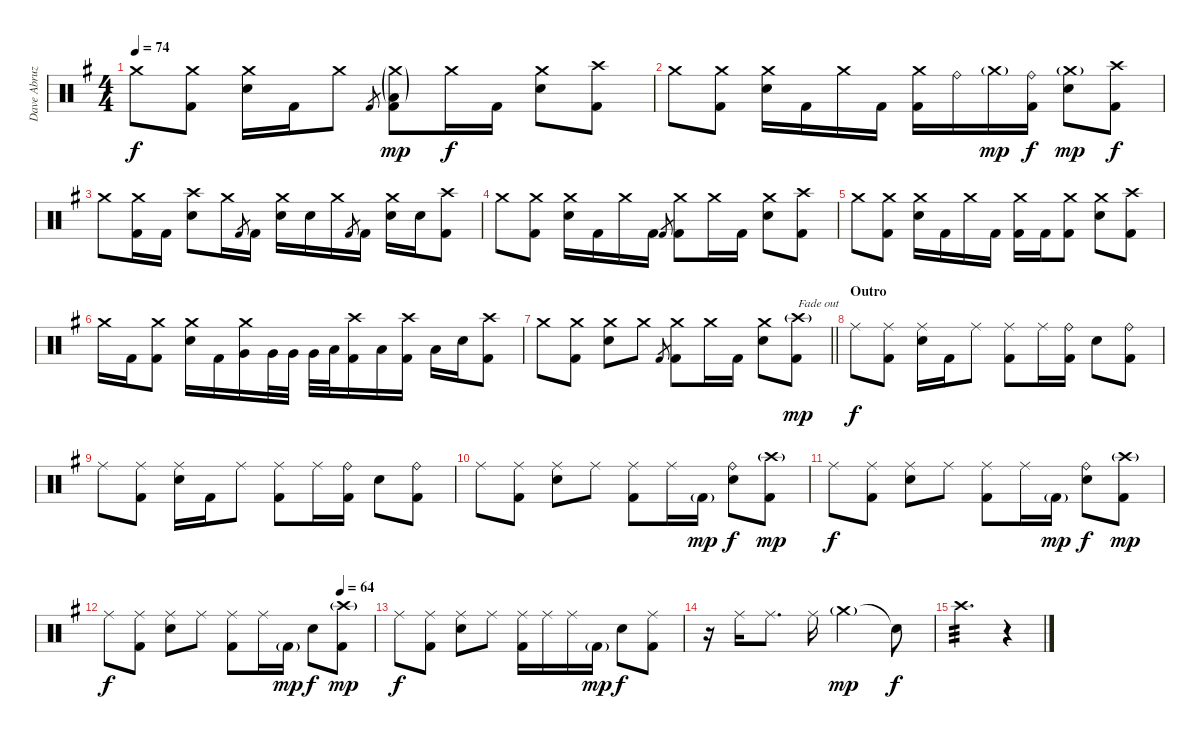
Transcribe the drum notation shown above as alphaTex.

\track ("Dave Abruzzese" "Dave Abruz") {instrument percussion}
\staff {score}
\articulation defaults
\ts (4 4)
\tempo 74
\clef neutral
\ks eminor "Crash medium (hit)".8{dy f}
("Crash medium (hit)" "Kick (hit) 2").8 ("Crash medium (hit)" "Electric Snare (hit)").16 "Kick (hit) 2".16 "Crash medium (hit)".8 "Kick (hit) 2".8{gr} ("Crash medium (hit)"{g} "Low Floor Tom (hit)"{g} "Kick (hit) 2").8{dy mp} "Crash medium (hit)".16{dy f} "Kick (hit) 2".16 ("Crash medium (hit)" "Electric Snare (hit)").8 ("Crash high (hit)" "Kick (hit) 2").8 |
"Crash medium (hit)".8 ("Crash medium (hit)" "Kick (hit) 2").8 ("Crash medium (hit)" "Electric Snare (hit)").16 "Kick (hit) 2".16 "Crash medium (hit)".16 "Kick (hit) 2".16 ("Crash medium (hit)" "Kick (hit) 2").16 "Ride (bell)".16 "Crash medium (hit)"{g}.16{dy mp} ("Ride (bell)" "Kick (hit) 2").16{dy f} ("Crash medium (hit)"{g} "Electric Snare (hit)").8{dy mp} ("Crash high (hit)" "Kick (hit) 2").8{dy f} |
"Crash medium (hit)".8 ("Crash medium (hit)" "Kick (hit) 2").16 "Kick (hit) 2".16 ("Crash high (hit)" "Electric Snare (hit)").8 "Crash medium (hit)".16 "Kick (hit) 2".8{gr} "Kick (hit) 2".16 ("Crash medium (hit)" "Electric Snare (hit)").16 "Electric Snare (hit)".16 "Crash medium (hit)".16 "Kick (hit) 2".8{gr} "Kick (hit) 2".16 ("Crash medium (hit)" "Electric Snare (hit)").16 "Electric Snare (hit)".16 ("Crash high (hit)" "Kick (hit) 2").8 |
"Crash medium (hit)".8 ("Crash medium (hit)" "Kick (hit) 2").8 ("Crash medium (hit)" "Electric Snare (hit)").16 "Kick (hit) 2".16 "Crash medium (hit)".16 "Kick (hit) 2".16 "Kick (hit) 2".8{gr} ("Crash medium (hit)" "Kick (hit) 2").8 "Crash medium (hit)".16 "Kick (hit) 2".16 ("Crash medium (hit)" "Electric Snare (hit)").8 ("Crash high (hit)" "Kick (hit) 2").8 |
"Crash medium (hit)".8 ("Crash medium (hit)" "Kick (hit) 2").8 ("Crash medium (hit)" "Electric Snare (hit)").16 "Kick (hit) 2".16 "Crash medium (hit)".16 "Kick (hit) 2".16 ("Crash medium (hit)" "Kick (hit) 2").16 "Kick (hit) 2".16 ("Crash medium (hit)" "Kick (hit) 2").8 ("Crash medium (hit)" "Electric Snare (hit)").8 ("Crash high (hit)" "Kick (hit) 2").8 |
"Crash medium (hit)".16 "Kick (hit) 2".16 ("Crash medium (hit)" "Kick (hit) 2").8 ("Crash medium (hit)" "Electric Snare (hit)").16 "Kick (hit) 2".16 ("Crash medium (hit)" "Very Low Tom (hit)").16 "Very Low Tom (hit)".32 "Very Low Tom (hit)".32 "Very Low Tom (hit)".32 "Low Floor Tom (hit)".32 ("Crash high (hit)" "Kick (hit) 2").16 "Low Floor Tom (hit)".16 ("Crash high (hit)" "Kick (hit) 2").16 "Low Floor Tom (hit)".16 "Electric Snare (hit)".16 ("Crash high (hit)" "Kick (hit) 2").8 |
\barLineRight lightlight "Crash medium (hit)".8
("Crash medium (hit)" "Kick (hit) 2").8 ("Crash medium (hit)" "Electric Snare (hit)").8 "Crash medium (hit)".8 "Kick (hit) 2".8{gr} ("Crash medium (hit)" "Kick (hit) 2").8 "Crash medium (hit)".16 "Kick (hit) 2".16 ("Crash medium (hit)" "Electric Snare (hit)").8 ("Crash high (hit)"{g} "Kick (hit) 2").8{txt "Fade out" dy mp volume 9} |
\section ("" "Outro")
"Ride (middle)".8{dy f} ("Ride (middle)" "Kick (hit) 2").8 ("Ride (middle)" "Electric Snare (hit)").16 "Kick (hit) 2".16 "Ride (middle)".8 ("Ride (middle)" "Kick (hit) 2").8 "Ride (middle)".16 ("Ride (bell)" "Kick (hit) 2").16 "Electric Snare (hit)".8 ("Ride (bell)" "Kick (hit) 2").8{volume 6} |
"Ride (middle)".8 ("Ride (middle)" "Kick (hit) 2").8 ("Ride (middle)" "Electric Snare (hit)").16 "Kick (hit) 2".16 "Ride (middle)".8 ("Ride (middle)" "Kick (hit) 2").8 "Ride (middle)".16 ("Ride (bell)" "Kick (hit) 2").16 "Electric Snare (hit)".8 ("Ride (bell)" "Kick (hit) 2").8{volume 3} |
"Ride (middle)".8 ("Ride (middle)" "Kick (hit) 2").8 ("Ride (middle)" "Electric Snare (hit)").8 "Ride (middle)".8 ("Ride (middle)" "Kick (hit) 2").8 "Ride (middle)".16 "Kick (hit) 2"{g}.16{dy mp} ("Ride (bell)" "Electric Snare (hit)").8{dy f} ("Crash high (hit)"{g} "Kick (hit) 2").8{dy mp volume 2} |
"Ride (middle)".8{dy f} ("Ride (middle)" "Kick (hit) 2").8 ("Ride (middle)" "Electric Snare (hit)").8 "Ride (middle)".8 ("Ride (middle)" "Kick (hit) 2").8 "Ride (middle)".16 "Kick (hit) 2"{g}.16{dy mp} ("Ride (bell)" "Electric Snare (hit)").8{dy f} ("Crash high (hit)"{g} "Kick (hit) 2").8{dy mp} |
\tempo (64 0.875)
"Ride (middle)".8{dy f} ("Ride (middle)" "Kick (hit) 2").8 ("Ride (middle)" "Electric Snare (hit)").8 "Ride (middle)".8 ("Ride (middle)" "Kick (hit) 2").8 "Ride (middle)".16 "Kick (hit) 2"{g}.16{dy mp} "Electric Snare (hit)".8{dy f} ("Crash high (hit)"{g} "Kick (hit) 2").8{dy mp volume 1} |
"Ride (middle)".8{dy f} ("Ride (middle)" "Kick (hit) 2").8 ("Ride (middle)" "Electric Snare (hit)").8 "Ride (middle)".8 ("Ride (middle)" "Kick (hit) 2").16 "Ride (middle)".16 "Ride (middle)".16 "Kick (hit) 2"{g}.16{dy mp} "Electric Snare (hit)".8{dy f} ("Ride (middle)" "Kick (hit) 2").8 |
r.16 "Ride (middle)".16 "Ride (middle)".8{d} "Ride (middle)".16 "Crash medium (hit)"{g}.2{dy mp} "Snare (hit)"{t}.8{dy f} |
"Crash high (hit)".2{d tp 3} r.4
